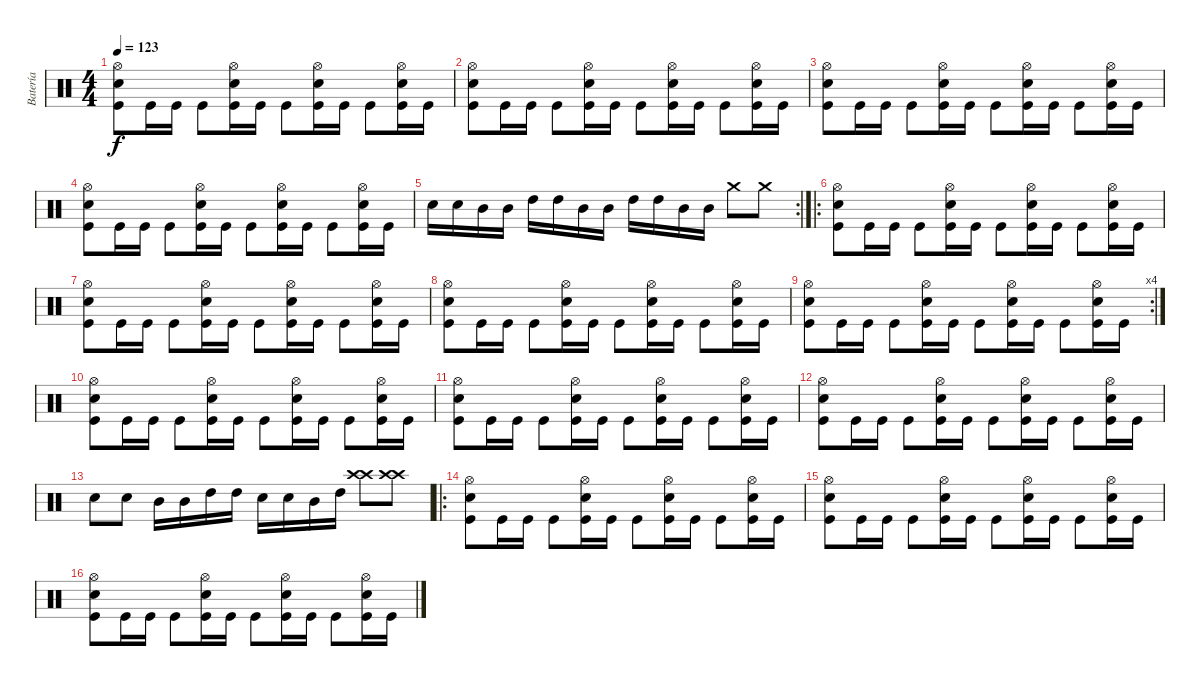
\track ("Batería" "Batería") {instrument percussion}
\staff {score}
\articulation defaults
\ts (4 4)
\tempo 123
\clef neutral
\ks c
("Hi-Hat (open)" "Snare (hit) 2" "Kick (hit)").8{dy f} "Kick (hit)".16 "Kick (hit)".16 "Kick (hit)".8 ("Hi-Hat (open)" "Snare (hit) 2" "Kick (hit)").16 "Kick (hit)".16 "Kick (hit)".8 ("Hi-Hat (open)" "Snare (hit) 2" "Kick (hit)").16 "Kick (hit)".16 "Kick (hit)".8 ("Hi-Hat (open)" "Snare (hit) 2" "Kick (hit)").16 "Kick (hit)".16 |
("Hi-Hat (open)" "Snare (hit) 2" "Kick (hit)").8 "Kick (hit)".16 "Kick (hit)".16 "Kick (hit)".8 ("Hi-Hat (open)" "Snare (hit) 2" "Kick (hit)").16 "Kick (hit)".16 "Kick (hit)".8 ("Hi-Hat (open)" "Snare (hit) 2" "Kick (hit)").16 "Kick (hit)".16 "Kick (hit)".8 ("Hi-Hat (open)" "Snare (hit) 2" "Kick (hit)").16 "Kick (hit)".16 |
("Hi-Hat (open)" "Snare (hit) 2" "Kick (hit)").8 "Kick (hit)".16 "Kick (hit)".16 "Kick (hit)".8 ("Hi-Hat (open)" "Snare (hit) 2" "Kick (hit)").16 "Kick (hit)".16 "Kick (hit)".8 ("Hi-Hat (open)" "Snare (hit) 2" "Kick (hit)").16 "Kick (hit)".16 "Kick (hit)".8 ("Hi-Hat (open)" "Snare (hit) 2" "Kick (hit)").16 "Kick (hit)".16 |
("Hi-Hat (open)" "Snare (hit) 2" "Kick (hit)").8 "Kick (hit)".16 "Kick (hit)".16 "Kick (hit)".8 ("Hi-Hat (open)" "Snare (hit) 2" "Kick (hit)").16 "Kick (hit)".16 "Kick (hit)".8 ("Hi-Hat (open)" "Snare (hit) 2" "Kick (hit)").16 "Kick (hit)".16 "Kick (hit)".8 ("Hi-Hat (open)" "Snare (hit) 2" "Kick (hit)").16 "Kick (hit)".16 |
\rc 2 "Snare (hit) 2".16 "Snare (hit) 2".16 "Mid Tom (hit)".16 "Mid Tom (hit)".16 "High Tom (hit)".16 "High Tom (hit)".16 "Mid Tom (hit)".16 "Mid Tom (hit)".16 "High Tom (hit)".16 "High Tom (hit)".16 "Mid Tom (hit)".16 "Mid Tom (hit)".16 "Crash medium (hit)".8 "Crash medium (hit)".8
|
\ro
("Hi-Hat (open)" "Snare (hit) 2" "Kick (hit)").8 "Kick (hit)".16 "Kick (hit)".16 "Kick (hit)".8 ("Hi-Hat (open)" "Snare (hit) 2" "Kick (hit)").16 "Kick (hit)".16 "Kick (hit)".8 ("Hi-Hat (open)" "Snare (hit) 2" "Kick (hit)").16 "Kick (hit)".16 "Kick (hit)".8 ("Hi-Hat (open)" "Snare (hit) 2" "Kick (hit)").16 "Kick (hit)".16 |
("Hi-Hat (open)" "Snare (hit) 2" "Kick (hit)").8 "Kick (hit)".16 "Kick (hit)".16 "Kick (hit)".8 ("Hi-Hat (open)" "Snare (hit) 2" "Kick (hit)").16 "Kick (hit)".16 "Kick (hit)".8 ("Hi-Hat (open)" "Snare (hit) 2" "Kick (hit)").16 "Kick (hit)".16 "Kick (hit)".8 ("Hi-Hat (open)" "Snare (hit) 2" "Kick (hit)").16 "Kick (hit)".16 |
("Hi-Hat (open)" "Snare (hit) 2" "Kick (hit)").8 "Kick (hit)".16 "Kick (hit)".16 "Kick (hit)".8 ("Hi-Hat (open)" "Snare (hit) 2" "Kick (hit)").16 "Kick (hit)".16 "Kick (hit)".8 ("Hi-Hat (open)" "Snare (hit) 2" "Kick (hit)").16 "Kick (hit)".16 "Kick (hit)".8 ("Hi-Hat (open)" "Snare (hit) 2" "Kick (hit)").16 "Kick (hit)".16 |
\rc 4
("Hi-Hat (open)" "Snare (hit) 2" "Kick (hit)").8 "Kick (hit)".16 "Kick (hit)".16 "Kick (hit)".8 ("Hi-Hat (open)" "Snare (hit) 2" "Kick (hit)").16 "Kick (hit)".16 "Kick (hit)".8 ("Hi-Hat (open)" "Snare (hit) 2" "Kick (hit)").16 "Kick (hit)".16 "Kick (hit)".8 ("Hi-Hat (open)" "Snare (hit) 2" "Kick (hit)").16 "Kick (hit)".16 |
("Hi-Hat (open)" "Snare (hit) 2" "Kick (hit)").8 "Kick (hit)".16 "Kick (hit)".16 "Kick (hit)".8 ("Hi-Hat (open)" "Snare (hit) 2" "Kick (hit)").16 "Kick (hit)".16 "Kick (hit)".8 ("Hi-Hat (open)" "Snare (hit) 2" "Kick (hit)").16 "Kick (hit)".16 "Kick (hit)".8 ("Hi-Hat (open)" "Snare (hit) 2" "Kick (hit)").16 "Kick (hit)".16 |
("Hi-Hat (open)" "Snare (hit) 2" "Kick (hit)").8 "Kick (hit)".16 "Kick (hit)".16 "Kick (hit)".8 ("Hi-Hat (open)" "Snare (hit) 2" "Kick (hit)").16 "Kick (hit)".16 "Kick (hit)".8 ("Hi-Hat (open)" "Snare (hit) 2" "Kick (hit)").16 "Kick (hit)".16 "Kick (hit)".8 ("Hi-Hat (open)" "Snare (hit) 2" "Kick (hit)").16 "Kick (hit)".16 |
("Hi-Hat (open)" "Snare (hit) 2" "Kick (hit)").8 "Kick (hit)".16 "Kick (hit)".16 "Kick (hit)".8 ("Hi-Hat (open)" "Snare (hit) 2" "Kick (hit)").16 "Kick (hit)".16 "Kick (hit)".8 ("Hi-Hat (open)" "Snare (hit) 2" "Kick (hit)").16 "Kick (hit)".16 "Kick (hit)".8 ("Hi-Hat (open)" "Snare (hit) 2" "Kick (hit)").16 "Kick (hit)".16 |
"Snare (hit) 2".8 "Snare (hit) 2".8 "Mid Tom (hit)".16 "Mid Tom (hit)".16 "High Tom (hit)".16 "High Tom (hit)".16 "Snare (hit) 2".16 "Snare (hit) 2".16 "Mid Tom (hit)".16 "High Tom (hit)".16 ("Crash high (hit)" "Crash high (hit)").8 ("Crash high (hit)" "Crash high (hit)").8 |
\ro
("Hi-Hat (open)" "Snare (hit) 2" "Kick (hit)").8 "Kick (hit)".16 "Kick (hit)".16 "Kick (hit)".8 ("Hi-Hat (open)" "Snare (hit) 2" "Kick (hit)").16 "Kick (hit)".16 "Kick (hit)".8 ("Hi-Hat (open)" "Snare (hit) 2" "Kick (hit)").16 "Kick (hit)".16 "Kick (hit)".8 ("Hi-Hat (open)" "Snare (hit) 2" "Kick (hit)").16 "Kick (hit)".16 |
("Hi-Hat (open)" "Snare (hit) 2" "Kick (hit)").8 "Kick (hit)".16 "Kick (hit)".16 "Kick (hit)".8 ("Hi-Hat (open)" "Snare (hit) 2" "Kick (hit)").16 "Kick (hit)".16 "Kick (hit)".8 ("Hi-Hat (open)" "Snare (hit) 2" "Kick (hit)").16 "Kick (hit)".16 "Kick (hit)".8 ("Hi-Hat (open)" "Snare (hit) 2" "Kick (hit)").16 "Kick (hit)".16 |
("Hi-Hat (open)" "Snare (hit) 2" "Kick (hit)").8 "Kick (hit)".16 "Kick (hit)".16 "Kick (hit)".8 ("Hi-Hat (open)" "Snare (hit) 2" "Kick (hit)").16 "Kick (hit)".16 "Kick (hit)".8 ("Hi-Hat (open)" "Snare (hit) 2" "Kick (hit)").16 "Kick (hit)".16 "Kick (hit)".8 ("Hi-Hat (open)" "Snare (hit) 2" "Kick (hit)").16 "Kick (hit)".16
